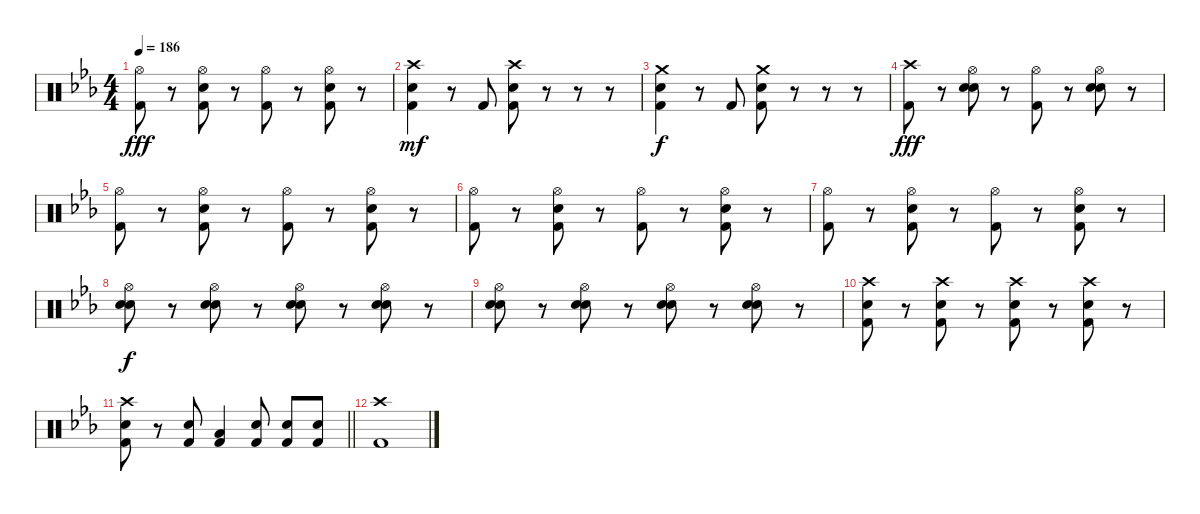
\track "" {instrument percussion}
\staff {score}
\articulation defaults
\ts (4 4)
\tempo 186
\clef neutral
\ks eb
("Hi-Hat (open)" "Kick (hit) 2").8{dy fff} r.8 ("Hi-Hat (open)" "Snare (hit) 2" "Kick (hit) 2").8 r.8 ("Hi-Hat (open)" "Kick (hit) 2").8 r.8 ("Hi-Hat (open)" "Snare (hit) 2" "Kick (hit) 2").8 r.8 |
("Crash high (hit)" "Snare (hit) 2" "Kick (hit) 2").4{dy mf} r.8 "Kick (hit) 2".8 ("Crash high (hit)" "Snare (hit) 2" "Kick (hit) 2").8 r.8 r.8 r.8 |
("Crash medium (hit)" "Snare (hit) 2" "Kick (hit) 2").4{dy f} r.8 "Kick (hit) 2".8 ("Crash medium (hit)" "Snare (hit) 2" "Kick (hit) 2").8 r.8 r.8 r.8 |
("Crash high (hit)" "Kick (hit) 2").8{dy fff} r.8 ("Hi-Hat (open)" "Snare (hit) 2" "Snare (hit) 2").8 r.8 ("Hi-Hat (open)" "Kick (hit) 2").8 r.8 ("Hi-Hat (open)" "Snare (hit) 2" "Snare (hit) 2").8 r.8 |
("Hi-Hat (open)" "Kick (hit) 2").8 r.8 ("Hi-Hat (open)" "Snare (hit) 2" "Kick (hit) 2").8 r.8 ("Hi-Hat (open)" "Kick (hit) 2").8 r.8 ("Hi-Hat (open)" "Snare (hit) 2" "Kick (hit) 2").8 r.8 |
("Hi-Hat (open)" "Kick (hit) 2").8 r.8 ("Hi-Hat (open)" "Snare (hit) 2" "Kick (hit) 2").8 r.8 ("Hi-Hat (open)" "Kick (hit) 2").8 r.8 ("Hi-Hat (open)" "Snare (hit) 2" "Kick (hit) 2").8 r.8 |
("Hi-Hat (open)" "Kick (hit) 2").8 r.8 ("Hi-Hat (open)" "Snare (hit) 2" "Kick (hit) 2").8 r.8 ("Hi-Hat (open)" "Kick (hit) 2").8 r.8 ("Hi-Hat (open)" "Snare (hit) 2" "Kick (hit) 2").8 r.8 |
("Hi-Hat (open)" "Snare (hit) 2" "Snare (hit) 2").8{dy f} r.8 ("Hi-Hat (open)" "Snare (hit) 2" "Snare (hit) 2").8 r.8 ("Hi-Hat (open)" "Snare (hit) 2" "Snare (hit) 2").8 r.8 ("Hi-Hat (open)" "Snare (hit) 2" "Snare (hit) 2").8 r.8 |
("Hi-Hat (open)" "Snare (hit) 2" "Snare (hit) 2").8 r.8 ("Hi-Hat (open)" "Snare (hit) 2" "Snare (hit) 2").8 r.8 ("Hi-Hat (open)" "Snare (hit) 2" "Snare (hit) 2").8 r.8 ("Hi-Hat (open)" "Snare (hit) 2" "Snare (hit) 2").8 r.8 |
("Crash high (hit)" "Snare (hit) 2" "Kick (hit) 2").8 r.8 ("Crash high (hit)" "Snare (hit) 2" "Kick (hit) 2").8 r.8 ("Crash high (hit)" "Snare (hit) 2" "Kick (hit) 2").8 r.8 ("Crash high (hit)" "Snare (hit) 2" "Kick (hit) 2").8 r.8 |
\barLineRight lightlight
("Crash high (hit)" "Snare (hit) 2" "Kick (hit) 2").8 r.8 ("Snare (hit) 2" "Kick (hit) 2").8 ("Low Tom (hit)" "Kick (hit) 2").4 ("Snare (hit) 2" "Kick (hit) 2").8 ("Snare (hit) 2" "Kick (hit) 2").8 ("Snare (hit) 2" "Kick (hit) 2").8 |
("Crash high (hit)" "Kick (hit) 2").1
